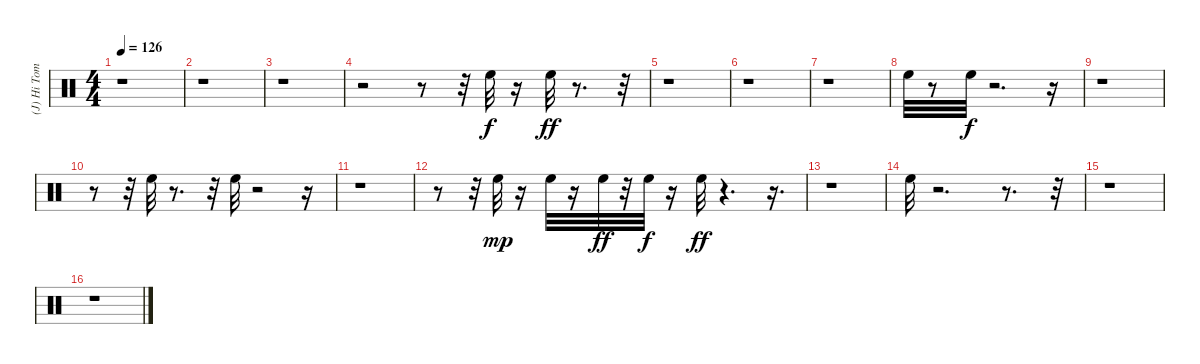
\track ("(J) Hi Tom" "(J) Hi Tom") {instrument percussion}
\staff {score}
\articulation defaults
\ts (4 4)
\tempo 126
\clef neutral
\ks c
r.1{dy ff} |
r.1 |
r.1 |
r.2 r.8 r.32 "High Floor Tom (hit)".32{dy f} r.16 "High Floor Tom (hit)".32{dy ff} r.8{d} r.32 |
r.1 |
r.1 |
r.1 |
"High Floor Tom (hit)".32 r.8 "High Floor Tom (hit)".32{dy f} r.2{d} r.16 |
r.1 |
r.8 r.32 "High Floor Tom (hit)".32 r.8{d} r.32 "High Floor Tom (hit)".32 r.2 r.16 |
r.1 |
r.8 r.32 "High Floor Tom (hit)".32{dy mp} r.16 "High Floor Tom (hit)".32 r.16 "High Floor Tom (hit)".32{dy ff} r.32 "High Floor Tom (hit)".32{dy f} r.16 "High Floor Tom (hit)".32{dy ff} r.4{d} r.16{d} |
r.1 |
"High Floor Tom (hit)".32 r.2{d} r.8{d} r.32 |
r.1 |
r.1
